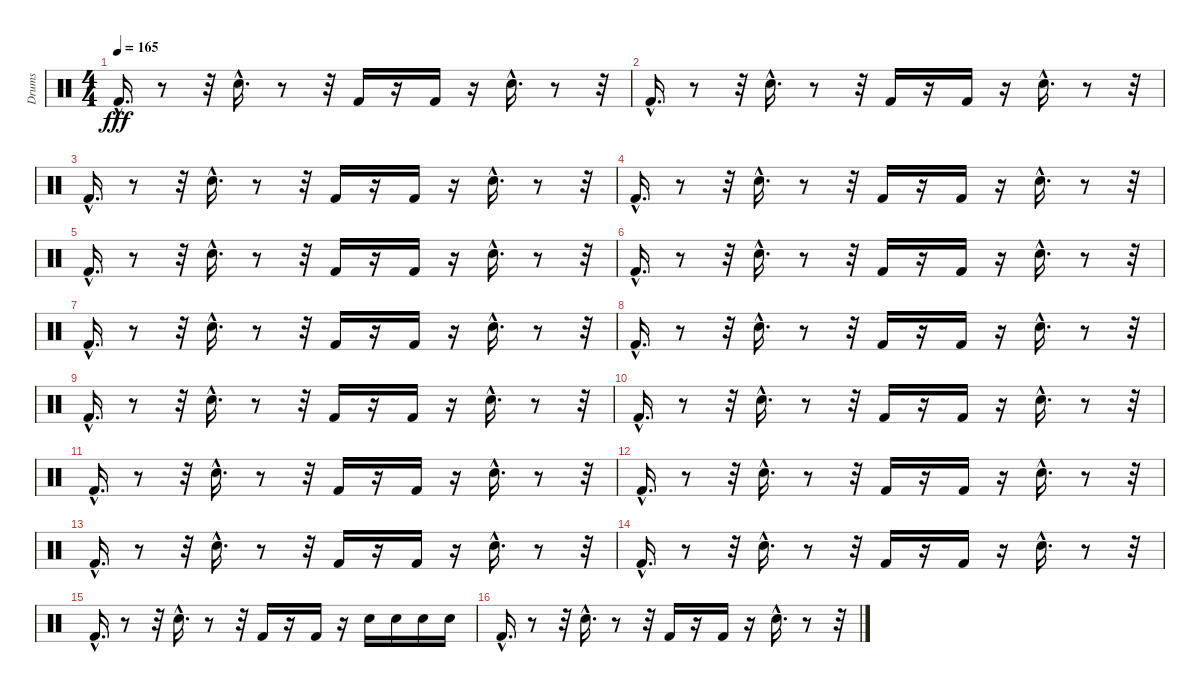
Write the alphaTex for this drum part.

\track ("Drums" "Drums") {instrument percussion}
\staff {score}
\articulation defaults
\ts (4 4)
\tempo 165
\clef neutral
\ks c "Kick (hit) 2"{hac}.16{d dy fff}
r.8 r.32 "Electric Snare (hit)"{hac}.16{d} r.8 r.32 "Kick (hit) 2".16 r.16 "Kick (hit) 2".16 r.16 "Electric Snare (hit)"{hac}.16{d} r.8 r.32 |
"Kick (hit) 2"{hac}.16{d} r.8 r.32 "Electric Snare (hit)"{hac}.16{d} r.8 r.32 "Kick (hit) 2".16 r.16 "Kick (hit) 2".16 r.16 "Electric Snare (hit)"{hac}.16{d} r.8 r.32 |
"Kick (hit) 2"{hac}.16{d} r.8 r.32 "Electric Snare (hit)"{hac}.16{d} r.8 r.32 "Kick (hit) 2".16 r.16 "Kick (hit) 2".16 r.16 "Electric Snare (hit)"{hac}.16{d} r.8 r.32 |
"Kick (hit) 2"{hac}.16{d} r.8 r.32 "Electric Snare (hit)"{hac}.16{d} r.8 r.32 "Kick (hit) 2".16 r.16 "Kick (hit) 2".16 r.16 "Electric Snare (hit)"{hac}.16{d} r.8 r.32 |
"Kick (hit) 2"{hac}.16{d} r.8 r.32 "Electric Snare (hit)"{hac}.16{d} r.8 r.32 "Kick (hit) 2".16 r.16 "Kick (hit) 2".16 r.16 "Electric Snare (hit)"{hac}.16{d} r.8 r.32 |
"Kick (hit) 2"{hac}.16{d} r.8 r.32 "Electric Snare (hit)"{hac}.16{d} r.8 r.32 "Kick (hit) 2".16 r.16 "Kick (hit) 2".16 r.16 "Electric Snare (hit)"{hac}.16{d} r.8 r.32 |
"Kick (hit) 2"{hac}.16{d} r.8 r.32 "Electric Snare (hit)"{hac}.16{d} r.8 r.32 "Kick (hit) 2".16 r.16 "Kick (hit) 2".16 r.16 "Electric Snare (hit)"{hac}.16{d} r.8 r.32 |
"Kick (hit) 2"{hac}.16{d} r.8 r.32 "Electric Snare (hit)"{hac}.16{d} r.8 r.32 "Kick (hit) 2".16 r.16 "Kick (hit) 2".16 r.16 "Electric Snare (hit)"{hac}.16{d} r.8 r.32 |
"Kick (hit) 2"{hac}.16{d} r.8 r.32 "Electric Snare (hit)"{hac}.16{d} r.8 r.32 "Kick (hit) 2".16 r.16 "Kick (hit) 2".16 r.16 "Electric Snare (hit)"{hac}.16{d} r.8 r.32 |
"Kick (hit) 2"{hac}.16{d} r.8 r.32 "Electric Snare (hit)"{hac}.16{d} r.8 r.32 "Kick (hit) 2".16 r.16 "Kick (hit) 2".16 r.16 "Electric Snare (hit)"{hac}.16{d} r.8 r.32 |
"Kick (hit) 2"{hac}.16{d} r.8 r.32 "Electric Snare (hit)"{hac}.16{d} r.8 r.32 "Kick (hit) 2".16 r.16 "Kick (hit) 2".16 r.16 "Electric Snare (hit)"{hac}.16{d} r.8 r.32 |
"Kick (hit) 2"{hac}.16{d} r.8 r.32 "Electric Snare (hit)"{hac}.16{d} r.8 r.32 "Kick (hit) 2".16 r.16 "Kick (hit) 2".16 r.16 "Electric Snare (hit)"{hac}.16{d} r.8 r.32 |
"Kick (hit) 2"{hac}.16{d} r.8 r.32 "Electric Snare (hit)"{hac}.16{d} r.8 r.32 "Kick (hit) 2".16 r.16 "Kick (hit) 2".16 r.16 "Electric Snare (hit)"{hac}.16{d} r.8 r.32 |
"Kick (hit) 2"{hac}.16{d} r.8 r.32 "Electric Snare (hit)"{hac}.16{d} r.8 r.32 "Kick (hit) 2".16 r.16 "Kick (hit) 2".16 r.16 "Electric Snare (hit)"{hac}.16{d} r.8 r.32 |
"Kick (hit) 2"{hac}.16{d} r.8 r.32 "Electric Snare (hit)"{hac}.16{d} r.8 r.32 "Kick (hit) 2".16 r.16 "Kick (hit) 2".16 r.16 "Electric Snare (hit)".16 "Electric Snare (hit)".16 "Electric Snare (hit)".16 "Electric Snare (hit)".16 |
"Kick (hit) 2"{hac}.16{d} r.8 r.32 "Electric Snare (hit)"{hac}.16{d} r.8 r.32 "Kick (hit) 2".16 r.16 "Kick (hit) 2".16 r.16 "Electric Snare (hit)"{hac}.16{d} r.8 r.32
